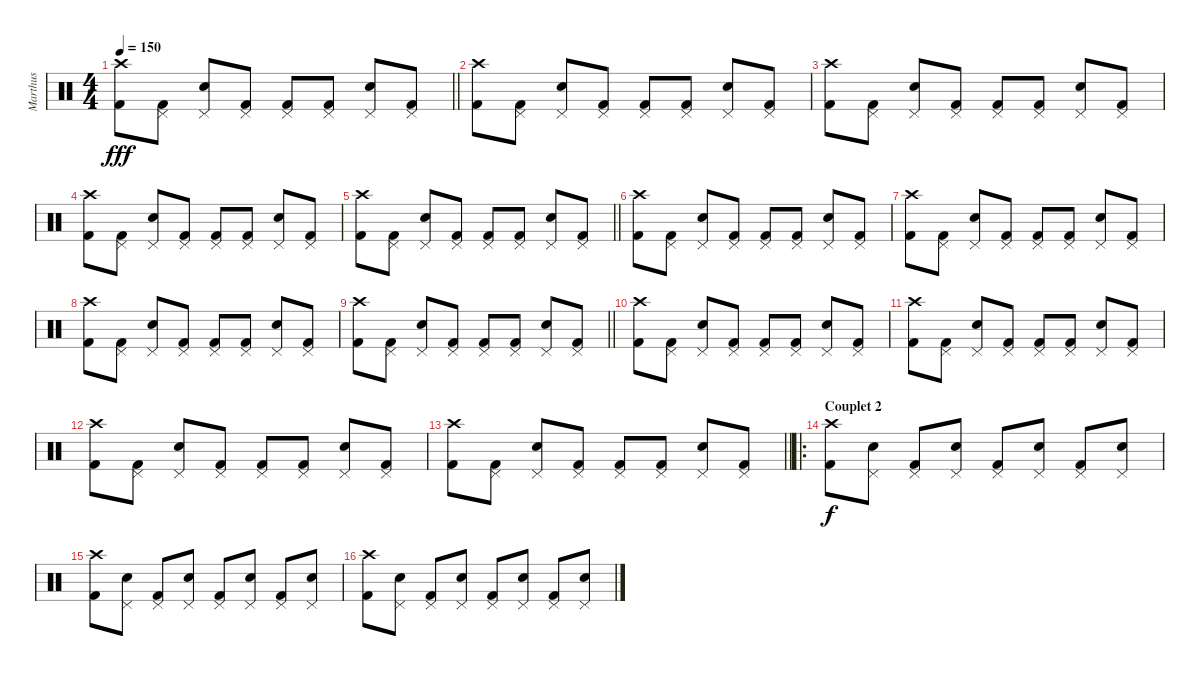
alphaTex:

\track ("Marthus" "Marthus") {instrument percussion}
\staff {score}
\articulation defaults
\ts (4 4)
\tempo 150
\clef neutral
\barLineRight lightlight
\ks c
("Kick (hit) 2" "Crash high (hit)").8{dy fff} ("Kick (hit) 2" "Pedal Hi-Hat (hit)").8 ("Electric Snare (hit)" "Pedal Hi-Hat (hit)").8 ("Kick (hit) 2" "Pedal Hi-Hat (hit)").8 ("Kick (hit) 2" "Pedal Hi-Hat (hit)").8 ("Kick (hit) 2" "Pedal Hi-Hat (hit)").8 ("Electric Snare (hit)" "Pedal Hi-Hat (hit)").8 ("Kick (hit) 2" "Pedal Hi-Hat (hit)").8 |
("Kick (hit) 2" "Crash high (hit)").8 ("Kick (hit) 2" "Pedal Hi-Hat (hit)").8 ("Electric Snare (hit)" "Pedal Hi-Hat (hit)").8 ("Kick (hit) 2" "Pedal Hi-Hat (hit)").8 ("Kick (hit) 2" "Pedal Hi-Hat (hit)").8 ("Kick (hit) 2" "Pedal Hi-Hat (hit)").8 ("Electric Snare (hit)" "Pedal Hi-Hat (hit)").8 ("Kick (hit) 2" "Pedal Hi-Hat (hit)").8 |
("Kick (hit) 2" "Crash high (hit)").8 ("Kick (hit) 2" "Pedal Hi-Hat (hit)").8 ("Electric Snare (hit)" "Pedal Hi-Hat (hit)").8 ("Kick (hit) 2" "Pedal Hi-Hat (hit)").8 ("Kick (hit) 2" "Pedal Hi-Hat (hit)").8 ("Kick (hit) 2" "Pedal Hi-Hat (hit)").8 ("Electric Snare (hit)" "Pedal Hi-Hat (hit)").8 ("Kick (hit) 2" "Pedal Hi-Hat (hit)").8 |
("Kick (hit) 2" "Crash high (hit)").8 ("Kick (hit) 2" "Pedal Hi-Hat (hit)").8 ("Electric Snare (hit)" "Pedal Hi-Hat (hit)").8 ("Kick (hit) 2" "Pedal Hi-Hat (hit)").8 ("Kick (hit) 2" "Pedal Hi-Hat (hit)").8 ("Kick (hit) 2" "Pedal Hi-Hat (hit)").8 ("Electric Snare (hit)" "Pedal Hi-Hat (hit)").8 ("Kick (hit) 2" "Pedal Hi-Hat (hit)").8 |
\barLineRight lightlight
("Kick (hit) 2" "Crash high (hit)").8 ("Kick (hit) 2" "Pedal Hi-Hat (hit)").8 ("Electric Snare (hit)" "Pedal Hi-Hat (hit)").8 ("Kick (hit) 2" "Pedal Hi-Hat (hit)").8 ("Kick (hit) 2" "Pedal Hi-Hat (hit)").8 ("Kick (hit) 2" "Pedal Hi-Hat (hit)").8 ("Electric Snare (hit)" "Pedal Hi-Hat (hit)").8 ("Kick (hit) 2" "Pedal Hi-Hat (hit)").8 |
("Kick (hit) 2" "Crash high (hit)").8 ("Kick (hit) 2" "Pedal Hi-Hat (hit)").8 ("Electric Snare (hit)" "Pedal Hi-Hat (hit)").8 ("Kick (hit) 2" "Pedal Hi-Hat (hit)").8 ("Kick (hit) 2" "Pedal Hi-Hat (hit)").8 ("Kick (hit) 2" "Pedal Hi-Hat (hit)").8 ("Electric Snare (hit)" "Pedal Hi-Hat (hit)").8 ("Kick (hit) 2" "Pedal Hi-Hat (hit)").8 |
("Kick (hit) 2" "Crash high (hit)").8 ("Kick (hit) 2" "Pedal Hi-Hat (hit)").8 ("Electric Snare (hit)" "Pedal Hi-Hat (hit)").8 ("Kick (hit) 2" "Pedal Hi-Hat (hit)").8 ("Kick (hit) 2" "Pedal Hi-Hat (hit)").8 ("Kick (hit) 2" "Pedal Hi-Hat (hit)").8 ("Electric Snare (hit)" "Pedal Hi-Hat (hit)").8 ("Kick (hit) 2" "Pedal Hi-Hat (hit)").8 |
("Kick (hit) 2" "Crash high (hit)").8 ("Kick (hit) 2" "Pedal Hi-Hat (hit)").8 ("Electric Snare (hit)" "Pedal Hi-Hat (hit)").8 ("Kick (hit) 2" "Pedal Hi-Hat (hit)").8 ("Kick (hit) 2" "Pedal Hi-Hat (hit)").8 ("Kick (hit) 2" "Pedal Hi-Hat (hit)").8 ("Electric Snare (hit)" "Pedal Hi-Hat (hit)").8 ("Kick (hit) 2" "Pedal Hi-Hat (hit)").8 |
\barLineRight lightlight
("Kick (hit) 2" "Crash high (hit)").8 ("Kick (hit) 2" "Pedal Hi-Hat (hit)").8 ("Electric Snare (hit)" "Pedal Hi-Hat (hit)").8 ("Kick (hit) 2" "Pedal Hi-Hat (hit)").8 ("Kick (hit) 2" "Pedal Hi-Hat (hit)").8 ("Kick (hit) 2" "Pedal Hi-Hat (hit)").8 ("Electric Snare (hit)" "Pedal Hi-Hat (hit)").8 ("Kick (hit) 2" "Pedal Hi-Hat (hit)").8 |
("Kick (hit) 2" "Crash high (hit)").8 ("Kick (hit) 2" "Pedal Hi-Hat (hit)").8 ("Electric Snare (hit)" "Pedal Hi-Hat (hit)").8 ("Kick (hit) 2" "Pedal Hi-Hat (hit)").8 ("Kick (hit) 2" "Pedal Hi-Hat (hit)").8 ("Kick (hit) 2" "Pedal Hi-Hat (hit)").8 ("Electric Snare (hit)" "Pedal Hi-Hat (hit)").8 ("Kick (hit) 2" "Pedal Hi-Hat (hit)").8 |
("Kick (hit) 2" "Crash high (hit)").8 ("Kick (hit) 2" "Pedal Hi-Hat (hit)").8 ("Electric Snare (hit)" "Pedal Hi-Hat (hit)").8 ("Kick (hit) 2" "Pedal Hi-Hat (hit)").8 ("Kick (hit) 2" "Pedal Hi-Hat (hit)").8 ("Kick (hit) 2" "Pedal Hi-Hat (hit)").8 ("Electric Snare (hit)" "Pedal Hi-Hat (hit)").8 ("Kick (hit) 2" "Pedal Hi-Hat (hit)").8 |
("Kick (hit) 2" "Crash high (hit)").8 ("Kick (hit) 2" "Pedal Hi-Hat (hit)").8 ("Electric Snare (hit)" "Pedal Hi-Hat (hit)").8 ("Kick (hit) 2" "Pedal Hi-Hat (hit)").8 ("Kick (hit) 2" "Pedal Hi-Hat (hit)").8 ("Kick (hit) 2" "Pedal Hi-Hat (hit)").8 ("Electric Snare (hit)" "Pedal Hi-Hat (hit)").8 ("Kick (hit) 2" "Pedal Hi-Hat (hit)").8 |
\barLineRight lightlight
("Kick (hit) 2" "Crash high (hit)").8 ("Kick (hit) 2" "Pedal Hi-Hat (hit)").8 ("Electric Snare (hit)" "Pedal Hi-Hat (hit)").8 ("Kick (hit) 2" "Pedal Hi-Hat (hit)").8 ("Kick (hit) 2" "Pedal Hi-Hat (hit)").8 ("Kick (hit) 2" "Pedal Hi-Hat (hit)").8 ("Electric Snare (hit)" "Pedal Hi-Hat (hit)").8 ("Kick (hit) 2" "Pedal Hi-Hat (hit)").8 |
\ro
\section ("" "Couplet 2")
("Kick (hit) 2" "Crash high (hit)").8{dy f} ("Electric Snare (hit)" "Pedal Hi-Hat (hit)").8 ("Kick (hit) 2" "Pedal Hi-Hat (hit)").8 ("Electric Snare (hit)" "Pedal Hi-Hat (hit)").8 ("Kick (hit) 2" "Pedal Hi-Hat (hit)").8 ("Electric Snare (hit)" "Pedal Hi-Hat (hit)").8 ("Kick (hit) 2" "Pedal Hi-Hat (hit)").8 ("Electric Snare (hit)" "Pedal Hi-Hat (hit)").8 |
("Kick (hit) 2" "Crash high (hit)").8 ("Electric Snare (hit)" "Pedal Hi-Hat (hit)").8 ("Kick (hit) 2" "Pedal Hi-Hat (hit)").8 ("Electric Snare (hit)" "Pedal Hi-Hat (hit)").8 ("Kick (hit) 2" "Pedal Hi-Hat (hit)").8 ("Electric Snare (hit)" "Pedal Hi-Hat (hit)").8 ("Kick (hit) 2" "Pedal Hi-Hat (hit)").8 ("Electric Snare (hit)" "Pedal Hi-Hat (hit)").8 |
("Kick (hit) 2" "Crash high (hit)").8 ("Electric Snare (hit)" "Pedal Hi-Hat (hit)").8 ("Kick (hit) 2" "Pedal Hi-Hat (hit)").8 ("Electric Snare (hit)" "Pedal Hi-Hat (hit)").8 ("Kick (hit) 2" "Pedal Hi-Hat (hit)").8 ("Electric Snare (hit)" "Pedal Hi-Hat (hit)").8 ("Kick (hit) 2" "Pedal Hi-Hat (hit)").8 ("Electric Snare (hit)" "Pedal Hi-Hat (hit)").8
